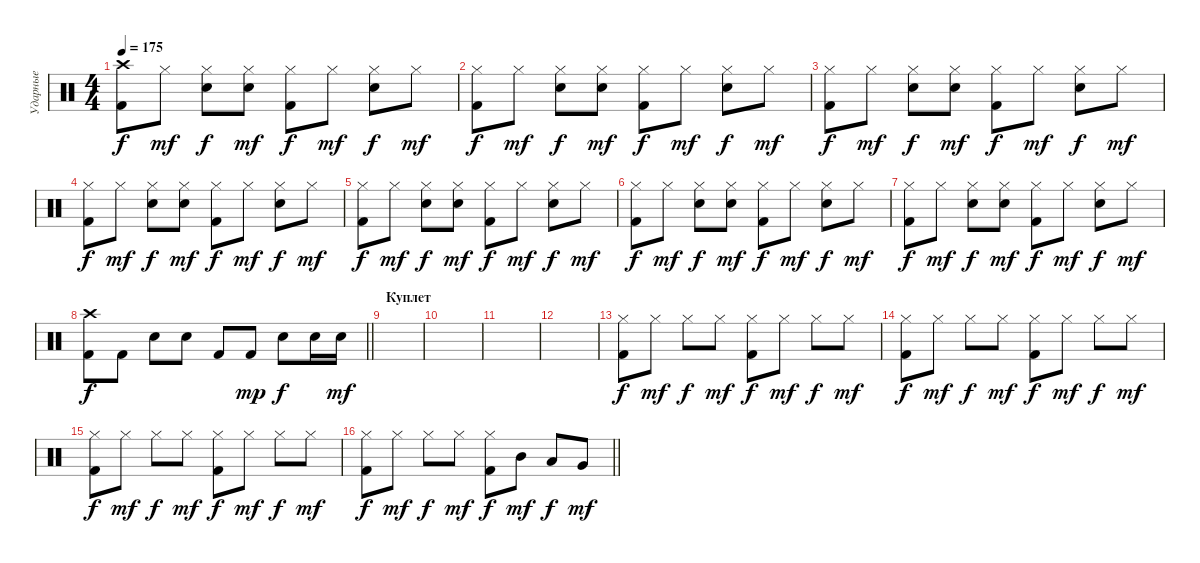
\track ("Ударные" "Ударные") {instrument percussion}
\staff {score}
\articulation defaults
\ts (4 4)
\section ("" "")
\tempo 175
\clef neutral
\ks c
("Crash high (hit)" "Kick (hit) 2").8{dy f} "Hi-Hat (closed)".8{dy mf} ("Hi-Hat (closed)" "Snare (hit) 2").8{dy f} ("Hi-Hat (closed)" "Snare (hit) 2").8{dy mf} ("Hi-Hat (closed)" "Kick (hit) 2").8{dy f} "Hi-Hat (closed)".8{dy mf} ("Hi-Hat (closed)" "Snare (hit) 2").8{dy f} "Hi-Hat (closed)".8{dy mf} |
("Hi-Hat (closed)" "Kick (hit) 2").8{dy f} "Hi-Hat (closed)".8{dy mf} ("Hi-Hat (closed)" "Snare (hit) 2").8{dy f} ("Hi-Hat (closed)" "Snare (hit) 2").8{dy mf} ("Hi-Hat (closed)" "Kick (hit) 2").8{dy f} "Hi-Hat (closed)".8{dy mf} ("Hi-Hat (closed)" "Snare (hit) 2").8{dy f} "Hi-Hat (closed)".8{dy mf} |
("Hi-Hat (closed)" "Kick (hit) 2").8{dy f} "Hi-Hat (closed)".8{dy mf} ("Hi-Hat (closed)" "Snare (hit) 2").8{dy f} ("Hi-Hat (closed)" "Snare (hit) 2").8{dy mf} ("Hi-Hat (closed)" "Kick (hit) 2").8{dy f} "Hi-Hat (closed)".8{dy mf} ("Hi-Hat (closed)" "Snare (hit) 2").8{dy f} "Hi-Hat (closed)".8{dy mf} |
("Hi-Hat (closed)" "Kick (hit) 2").8{dy f} "Hi-Hat (closed)".8{dy mf} ("Hi-Hat (closed)" "Snare (hit) 2").8{dy f} ("Hi-Hat (closed)" "Snare (hit) 2").8{dy mf} ("Hi-Hat (closed)" "Kick (hit) 2").8{dy f} "Hi-Hat (closed)".8{dy mf} ("Hi-Hat (closed)" "Snare (hit) 2").8{dy f} "Hi-Hat (closed)".8{dy mf} |
("Hi-Hat (closed)" "Kick (hit) 2").8{dy f} "Hi-Hat (closed)".8{dy mf} ("Hi-Hat (closed)" "Snare (hit) 2").8{dy f} ("Hi-Hat (closed)" "Snare (hit) 2").8{dy mf} ("Hi-Hat (closed)" "Kick (hit) 2").8{dy f} "Hi-Hat (closed)".8{dy mf} ("Hi-Hat (closed)" "Snare (hit) 2").8{dy f} "Hi-Hat (closed)".8{dy mf} |
("Hi-Hat (closed)" "Kick (hit) 2").8{dy f} "Hi-Hat (closed)".8{dy mf} ("Hi-Hat (closed)" "Snare (hit) 2").8{dy f} ("Hi-Hat (closed)" "Snare (hit) 2").8{dy mf} ("Hi-Hat (closed)" "Kick (hit) 2").8{dy f} "Hi-Hat (closed)".8{dy mf} ("Hi-Hat (closed)" "Snare (hit) 2").8{dy f} "Hi-Hat (closed)".8{dy mf} |
("Hi-Hat (closed)" "Kick (hit) 2").8{dy f} "Hi-Hat (closed)".8{dy mf} ("Hi-Hat (closed)" "Snare (hit) 2").8{dy f} ("Hi-Hat (closed)" "Snare (hit) 2").8{dy mf} ("Hi-Hat (closed)" "Kick (hit) 2").8{dy f} "Hi-Hat (closed)".8{dy mf} ("Hi-Hat (closed)" "Snare (hit) 2").8{dy f} "Hi-Hat (closed)".8{dy mf} |
\barLineRight lightlight
("Crash high (hit)" "Kick (hit) 2").8{dy f} "Kick (hit) 2".8 "Snare (hit) 2".8 "Snare (hit) 2".8 "Kick (hit) 2".8 "Kick (hit) 2".8{dy mp} "Snare (hit) 2".8{dy f} "Snare (hit) 2".16 "Snare (hit) 2".16{dy mf} |
\section ("" "Куплет")
|
|
|
|
("Hi-Hat (closed)" "Kick (hit) 2").8{dy f} "Hi-Hat (closed)".8{dy mf} "Hi-Hat (closed)".8{dy f} "Hi-Hat (closed)".8{dy mf} ("Hi-Hat (closed)" "Kick (hit) 2").8{dy f} "Hi-Hat (closed)".8{dy mf} "Hi-Hat (closed)".8{dy f} "Hi-Hat (closed)".8{dy mf} |
("Hi-Hat (closed)" "Kick (hit) 2").8{dy f} "Hi-Hat (closed)".8{dy mf} "Hi-Hat (closed)".8{dy f} "Hi-Hat (closed)".8{dy mf} ("Hi-Hat (closed)" "Kick (hit) 2").8{dy f} "Hi-Hat (closed)".8{dy mf} "Hi-Hat (closed)".8{dy f} "Hi-Hat (closed)".8{dy mf} |
("Hi-Hat (closed)" "Kick (hit) 2").8{dy f} "Hi-Hat (closed)".8{dy mf} "Hi-Hat (closed)".8{dy f} "Hi-Hat (closed)".8{dy mf} ("Hi-Hat (closed)" "Kick (hit) 2").8{dy f} "Hi-Hat (closed)".8{dy mf} "Hi-Hat (closed)".8{dy f} "Hi-Hat (closed)".8{dy mf} |
\barLineRight lightlight
("Hi-Hat (closed)" "Kick (hit) 2").8{dy f} "Hi-Hat (closed)".8{dy mf} "Hi-Hat (closed)".8{dy f} "Hi-Hat (closed)".8{dy mf} ("Hi-Hat (closed)" "Kick (hit) 2").8{dy f} "Mid Tom (hit)".8{dy mf} "Low Tom (hit)".8{dy f} "Very Low Tom (hit)".8{dy mf}
